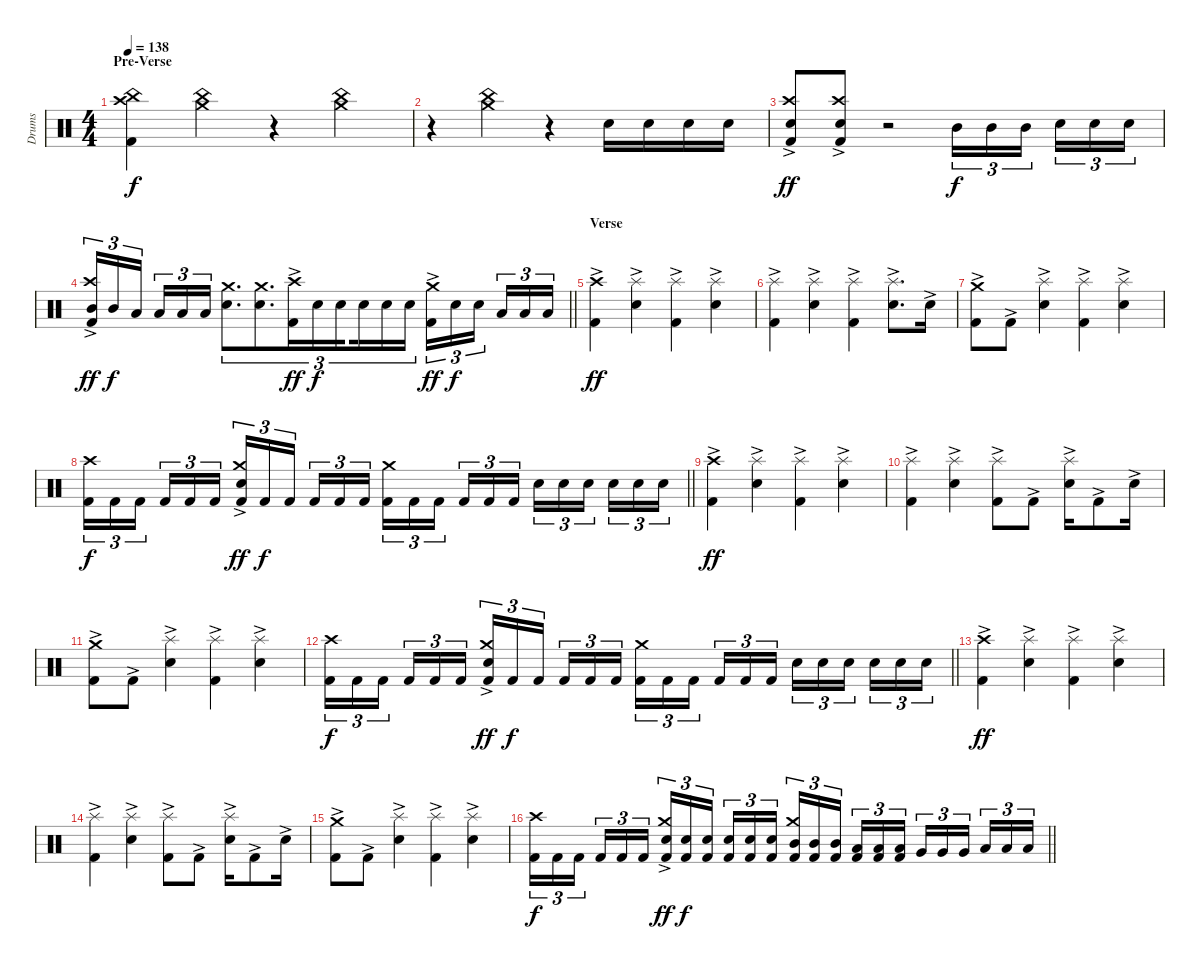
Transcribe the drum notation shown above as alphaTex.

\track ("Drums" "Drums") {instrument percussion}
\staff {score}
\articulation defaults
\ts (4 4)
\section ("" "Pre-Verse")
\tempo 138
\clef neutral
\ks c
("Kick (hit) 2" "China (hit)" "Crash high (hit)").4{dy f} ("China (hit)" "Crash medium (hit)").4 r.4 ("China (hit)" "Crash medium (hit)").4 |
r.4 ("China (hit)" "Crash medium (hit)").4 r.4 "Snare (hit) 2".16 "Snare (hit) 2".16 "Snare (hit) 2".16 "Snare (hit) 2".16 |
("Kick (hit) 2"{ac} "Snare (hit) 2"{ac} "Crash high (hit)").8{dy ff} ("Kick (hit) 2"{ac} "Snare (hit) 2"{ac} "Crash high (hit)").8 r.2 "Mid Tom (hit)".16{tu (3 2) dy f} "Mid Tom (hit)".16{tu (3 2)} "Mid Tom (hit)".16{tu (3 2) beam splitsecondary} "Snare (hit) 2".16{tu (3 2)} "Snare (hit) 2".16{tu (3 2)} "Snare (hit) 2".16{tu (3 2)} |
\barLineRight lightlight
("Kick (hit) 2"{ac} "Mid Tom (hit)" "Crash high (hit)").16{tu (3 2) dy ff} "Mid Tom (hit)".16{tu (3 2) dy f} "Low Tom (hit)".16{tu (3 2) beam splitsecondary} "Low Tom (hit)".16{tu (3 2)} "Low Tom (hit)".16{tu (3 2)} "Low Tom (hit)".16{tu (3 2)} ("Snare (hit) 2" "Crash medium (hit)").8{d tu (3 2)} ("Snare (hit) 2" "Crash medium (hit)").8{d tu (3 2)} ("Kick (hit) 2"{ac} "Crash high (hit)").16{tu (3 2) dy ff} "Snare (hit) 2".16{tu (3 2) dy f} "Snare (hit) 2".16{tu (3 2) beam splitsecondary} "Snare (hit) 2".16{tu (3 2)} "Snare (hit) 2".16{tu (3 2)} "Snare (hit) 2".16{tu (3 2)} ("Kick (hit) 2"{ac} "Crash medium (hit)").16{tu (3 2) dy ff} "Snare (hit) 2".16{tu (3 2) dy f} "Snare (hit) 2".16{tu (3 2) beam splitsecondary} "Low Tom (hit)".16{tu (3 2)} "Low Tom (hit)".16{tu (3 2)} "Low Tom (hit)".16{tu (3 2)} |
\section ("" "Verse")
("Kick (hit) 2"{ac} "Crash high (hit)").4{dy ff} ("Snare (hit) 2"{ac} "Splash (hit)").4 ("Kick (hit) 2"{ac} "Splash (hit)").4 ("Snare (hit) 2"{ac} "Splash (hit)").4 |
("Kick (hit) 2"{ac} "Splash (hit)").4 ("Snare (hit) 2"{ac} "Splash (hit)").4 ("Kick (hit) 2"{ac} "Splash (hit)").4 ("Snare (hit) 2"{ac} "Splash (hit)").8{d} "Snare (hit) 2"{ac}.16 |
("Kick (hit) 2"{ac} "Crash medium (hit)").8 "Kick (hit) 2"{ac}.8 ("Snare (hit) 2"{ac} "Splash (hit)").4 ("Kick (hit) 2"{ac} "Splash (hit)").4 ("Snare (hit) 2"{ac} "Splash (hit)").4 |
\barLineRight lightlight
("Kick (hit) 2" "Crash high (hit)").16{tu (3 2) dy f} "Kick (hit) 2".16{tu (3 2)} "Kick (hit) 2".16{tu (3 2) beam splitsecondary} "Kick (hit) 2".16{tu (3 2)} "Kick (hit) 2".16{tu (3 2)} "Kick (hit) 2".16{tu (3 2)} ("Kick (hit) 2" "Snare (hit) 2"{ac} "Crash medium (hit)").16{tu (3 2) dy ff} "Kick (hit) 2".16{tu (3 2) dy f} "Kick (hit) 2".16{tu (3 2) beam splitsecondary} "Kick (hit) 2".16{tu (3 2)} "Kick (hit) 2".16{tu (3 2)} "Kick (hit) 2".16{tu (3 2)} ("Kick (hit) 2" "Crash medium (hit)").16{tu (3 2)} "Kick (hit) 2".16{tu (3 2)} "Kick (hit) 2".16{tu (3 2) beam splitsecondary} "Kick (hit) 2".16{tu (3 2)} "Kick (hit) 2".16{tu (3 2)} "Kick (hit) 2".16{tu (3 2)} "Snare (hit) 2".16{tu (3 2)} "Snare (hit) 2".16{tu (3 2)} "Snare (hit) 2".16{tu (3 2) beam splitsecondary} "Snare (hit) 2".16{tu (3 2)} "Snare (hit) 2".16{tu (3 2)} "Snare (hit) 2".16{tu (3 2)} |
\section ("" "")
("Kick (hit) 2"{ac} "Crash high (hit)").4{dy ff} ("Snare (hit) 2"{ac} "Splash (hit)").4 ("Kick (hit) 2"{ac} "Splash (hit)").4 ("Snare (hit) 2"{ac} "Splash (hit)").4 |
("Kick (hit) 2"{ac} "Splash (hit)").4 ("Snare (hit) 2"{ac} "Splash (hit)").4 ("Kick (hit) 2"{ac} "Splash (hit)").8 "Kick (hit) 2"{ac}.8 ("Snare (hit) 2"{ac} "Splash (hit)").16 "Kick (hit) 2"{ac}.8 "Snare (hit) 2"{ac}.16 |
("Kick (hit) 2"{ac} "Crash medium (hit)").8 "Kick (hit) 2"{ac}.8 ("Snare (hit) 2"{ac} "Splash (hit)").4 ("Kick (hit) 2"{ac} "Splash (hit)").4 ("Snare (hit) 2"{ac} "Splash (hit)").4 |
\barLineRight lightlight
("Kick (hit) 2" "Crash high (hit)").16{tu (3 2) dy f} "Kick (hit) 2".16{tu (3 2)} "Kick (hit) 2".16{tu (3 2) beam splitsecondary} "Kick (hit) 2".16{tu (3 2)} "Kick (hit) 2".16{tu (3 2)} "Kick (hit) 2".16{tu (3 2)} ("Kick (hit) 2" "Snare (hit) 2"{ac} "Crash medium (hit)").16{tu (3 2) dy ff} "Kick (hit) 2".16{tu (3 2) dy f} "Kick (hit) 2".16{tu (3 2) beam splitsecondary} "Kick (hit) 2".16{tu (3 2)} "Kick (hit) 2".16{tu (3 2)} "Kick (hit) 2".16{tu (3 2)} ("Kick (hit) 2" "Crash medium (hit)").16{tu (3 2)} "Kick (hit) 2".16{tu (3 2)} "Kick (hit) 2".16{tu (3 2) beam splitsecondary} "Kick (hit) 2".16{tu (3 2)} "Kick (hit) 2".16{tu (3 2)} "Kick (hit) 2".16{tu (3 2)} "Snare (hit) 2".16{tu (3 2)} "Snare (hit) 2".16{tu (3 2)} "Snare (hit) 2".16{tu (3 2) beam splitsecondary} "Snare (hit) 2".16{tu (3 2)} "Snare (hit) 2".16{tu (3 2)} "Snare (hit) 2".16{tu (3 2)} |
\section ("" "")
("Kick (hit) 2"{ac} "Crash high (hit)").4{dy ff} ("Snare (hit) 2"{ac} "Splash (hit)").4 ("Kick (hit) 2"{ac} "Splash (hit)").4 ("Snare (hit) 2"{ac} "Splash (hit)").4 |
("Kick (hit) 2"{ac} "Splash (hit)").4 ("Snare (hit) 2"{ac} "Splash (hit)").4 ("Kick (hit) 2"{ac} "Splash (hit)").8 "Kick (hit) 2"{ac}.8 ("Snare (hit) 2"{ac} "Splash (hit)").16 "Kick (hit) 2"{ac}.8 "Snare (hit) 2"{ac}.16 |
("Kick (hit) 2"{ac} "Crash medium (hit)").8 "Kick (hit) 2"{ac}.8 ("Snare (hit) 2"{ac} "Splash (hit)").4 ("Kick (hit) 2"{ac} "Splash (hit)").4 ("Snare (hit) 2"{ac} "Splash (hit)").4 |
\barLineRight lightlight
("Kick (hit) 2" "Crash high (hit)").16{tu (3 2) dy f} "Kick (hit) 2".16{tu (3 2)} "Kick (hit) 2".16{tu (3 2) beam splitsecondary} "Kick (hit) 2".16{tu (3 2)} "Kick (hit) 2".16{tu (3 2)} "Kick (hit) 2".16{tu (3 2)} ("Kick (hit) 2" "Snare (hit) 2"{ac} "Crash medium (hit)").16{tu (3 2) dy ff} ("Kick (hit) 2" "Snare (hit) 2").16{tu (3 2) dy f} ("Kick (hit) 2" "Snare (hit) 2").16{tu (3 2) beam splitsecondary} ("Kick (hit) 2" "Snare (hit) 2").16{tu (3 2)} ("Kick (hit) 2" "Snare (hit) 2").16{tu (3 2)} ("Kick (hit) 2" "Snare (hit) 2").16{tu (3 2)} ("Kick (hit) 2" "Mid Tom (hit)" "Crash medium (hit)").16{tu (3 2)} ("Kick (hit) 2" "Mid Tom (hit)").16{tu (3 2)} ("Kick (hit) 2" "Mid Tom (hit)").16{tu (3 2) beam splitsecondary} ("Kick (hit) 2" "Low Tom (hit)").16{tu (3 2)} ("Kick (hit) 2" "Low Tom (hit)").16{tu (3 2)} ("Kick (hit) 2" "Low Tom (hit)").16{tu (3 2)} "Very Low Tom (hit)".16{tu (3 2)} "Very Low Tom (hit)".16{tu (3 2)} "Very Low Tom (hit)".16{tu (3 2) beam splitsecondary} "Low Floor Tom (hit)".16{tu (3 2)} "Low Floor Tom (hit)".16{tu (3 2)} "Low Floor Tom (hit)".16{tu (3 2)}
